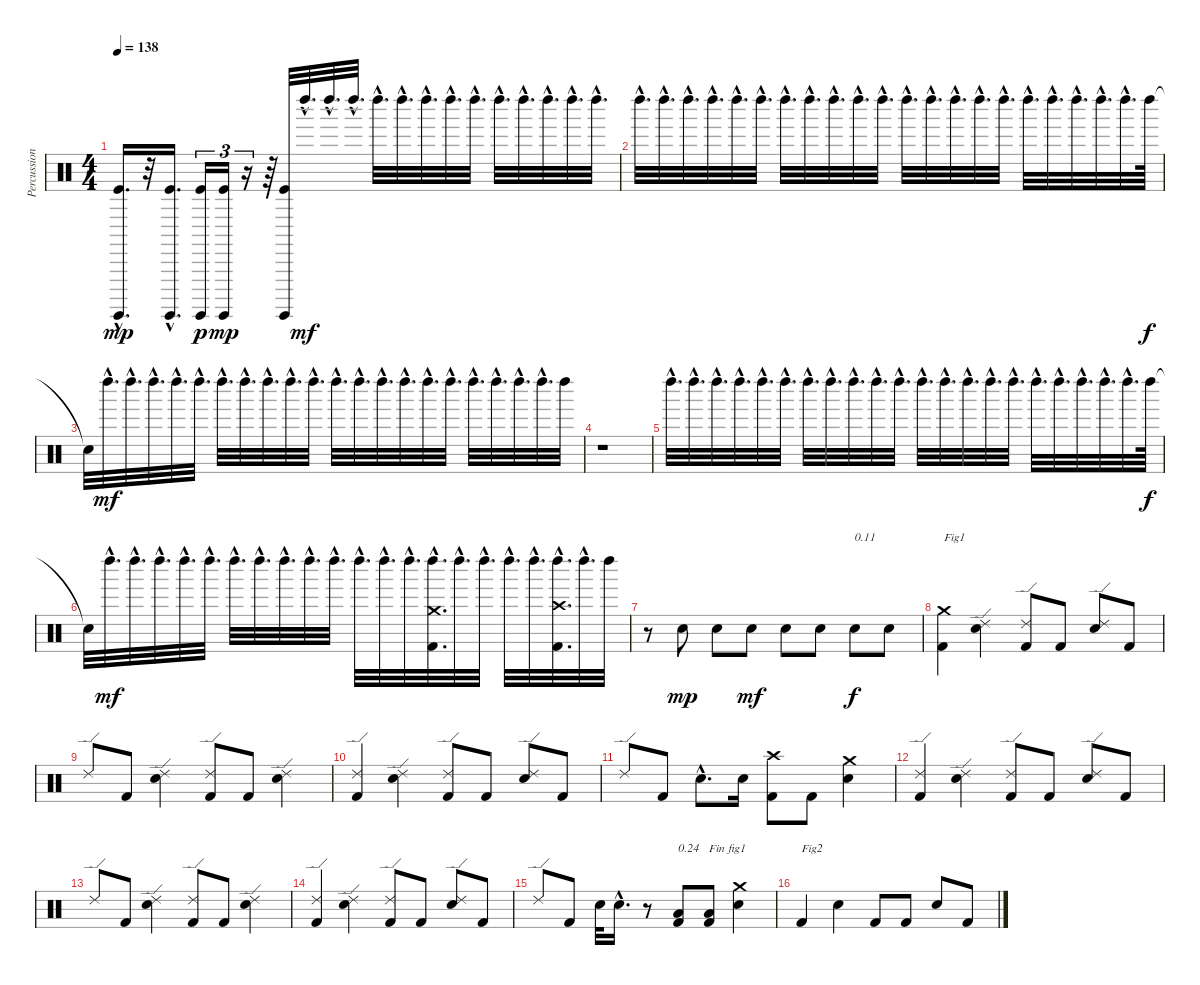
\track ("Percussions" "Percussion") {instrument percussion}
\staff {score}
\articulation defaults
\ts (4 4)
\tempo 138
\clef neutral
\ks c
("Kick (hit)"{hac} "Surdo (hit)"{hac}).16{d dy mp} r.32 ("Kick (hit)"{hac} "Surdo (hit)"{hac}).16{d} ("Kick (hit)" "Surdo (hit)").16{tu (3 2) dy p} ("Kick (hit)" "Surdo (hit)").16{tu (3 2) dy mp} r.16{tu (3 2)} r.64 ("Kick (hit)" "Surdo (hit)").32 "Left Maraca (hit)"{hac}.32{d dy mf} "Left Maraca (hit)"{hac}.32{d} "Left Maraca (hit)"{hac}.32{d} "Left Maraca (hit)"{hac}.32{d} "Left Maraca (hit)"{hac}.32{d} "Left Maraca (hit)"{hac}.32{d} "Left Maraca (hit)"{hac}.32{d} "Left Maraca (hit)"{hac}.32{d} "Left Maraca (hit)"{hac}.32{d} "Left Maraca (hit)"{hac}.32{d} "Left Maraca (hit)"{hac}.32{d} "Left Maraca (hit)"{hac}.32{d} "Left Maraca (hit)"{hac}.32{d} |
"Left Maraca (hit)"{hac}.32{d} "Left Maraca (hit)"{hac}.32{d} "Left Maraca (hit)"{hac}.32{d} "Left Maraca (hit)"{hac}.32{d} "Left Maraca (hit)"{hac}.32{d} "Left Maraca (hit)"{hac}.32{d} "Left Maraca (hit)"{hac}.32{d} "Left Maraca (hit)"{hac}.32{d} "Left Maraca (hit)"{hac}.32{d} "Left Maraca (hit)"{hac}.32{d} "Left Maraca (hit)"{hac}.32{d} "Left Maraca (hit)"{hac}.32{d} "Left Maraca (hit)"{hac}.32{d} "Left Maraca (hit)"{hac}.32{d} "Left Maraca (hit)"{hac}.32{d} "Left Maraca (hit)"{hac}.32{d} "Left Maraca (hit)"{hac}.32{d} "Left Maraca (hit)"{hac}.32{d} "Left Maraca (hit)"{hac}.32{d} "Left Maraca (hit)"{hac}.32{d} "Left Maraca (hit)"{hac}.32{d} "Left Maraca (hit)".64{dy f} |
"Snare (hit)"{t}.32 "Left Maraca (hit)"{hac}.32{d dy mf} "Left Maraca (hit)"{hac}.32{d} "Left Maraca (hit)"{hac}.32{d} "Left Maraca (hit)"{hac}.32{d} "Left Maraca (hit)"{hac}.32{d} "Left Maraca (hit)"{hac}.32{d} "Left Maraca (hit)"{hac}.32{d} "Left Maraca (hit)"{hac}.32{d} "Left Maraca (hit)"{hac}.32{d} "Left Maraca (hit)"{hac}.32{d} "Left Maraca (hit)"{hac}.32{d} "Left Maraca (hit)"{hac}.32{d} "Left Maraca (hit)"{hac}.32{d} "Left Maraca (hit)"{hac}.32{d} "Left Maraca (hit)"{hac}.32{d} "Left Maraca (hit)"{hac}.32{d} "Left Maraca (hit)"{hac}.32{d} "Left Maraca (hit)"{hac}.32{d} "Left Maraca (hit)"{hac}.32{d} "Left Maraca (hit)"{hac}.32{d} "Left Maraca (hit)".32 |
r.1 |
"Left Maraca (hit)"{hac}.32{d} "Left Maraca (hit)"{hac}.32{d} "Left Maraca (hit)"{hac}.32{d} "Left Maraca (hit)"{hac}.32{d} "Left Maraca (hit)"{hac}.32{d} "Left Maraca (hit)"{hac}.32{d} "Left Maraca (hit)"{hac}.32{d} "Left Maraca (hit)"{hac}.32{d} "Left Maraca (hit)"{hac}.32{d} "Left Maraca (hit)"{hac}.32{d} "Left Maraca (hit)"{hac}.32{d} "Left Maraca (hit)"{hac}.32{d} "Left Maraca (hit)"{hac}.32{d} "Left Maraca (hit)"{hac}.32{d} "Left Maraca (hit)"{hac}.32{d} "Left Maraca (hit)"{hac}.32{d} "Left Maraca (hit)"{hac}.32{d} "Left Maraca (hit)"{hac}.32{d} "Left Maraca (hit)"{hac}.32{d} "Left Maraca (hit)"{hac}.32{d} "Left Maraca (hit)"{hac}.32{d} "Left Maraca (hit)".64{dy f} |
"Snare (hit)"{t}.32 "Left Maraca (hit)"{hac}.32{d dy mf} "Left Maraca (hit)"{hac}.32{d} "Left Maraca (hit)"{hac}.32{d} "Left Maraca (hit)"{hac}.32{d} "Left Maraca (hit)"{hac}.32{d} "Left Maraca (hit)"{hac}.32{d} "Left Maraca (hit)"{hac}.32{d} "Left Maraca (hit)"{hac}.32{d} "Left Maraca (hit)"{hac}.32{d} "Left Maraca (hit)"{hac}.32{d} "Left Maraca (hit)"{hac}.32{d} "Left Maraca (hit)"{hac}.32{d} "Left Maraca (hit)"{hac}.32{d} ("Left Maraca (hit)"{hac} "Kick (hit) 2"{hac} "Crash medium (hit)"{hac}).32{d} "Left Maraca (hit)"{hac}.32{d} "Left Maraca (hit)"{hac}.32{d} "Left Maraca (hit)"{hac}.32{d} "Left Maraca (hit)"{hac}.32{d} ("Left Maraca (hit)"{hac} "Kick (hit) 2"{hac} "Crash high (hit)"{hac}).32{d} "Left Maraca (hit)"{hac}.32{d} "Left Maraca (hit)".32 |
r.8 "Electric Snare (hit)".8{dy mp} "Electric Snare (hit)".8 "Electric Snare (hit)".8{dy mf} "Electric Snare (hit)".8 "Electric Snare (hit)".8 "Electric Snare (hit)".8{txt "0.11" dy f} "Electric Snare (hit)".8 |
("Kick (hit) 2" "Crash medium (hit)").4{txt "Fig1"} ("Electric Snare (hit)" "Ride (edge) 2").4 ("Kick (hit) 2" "Ride (edge) 2").8 "Kick (hit) 2".8 ("Electric Snare (hit)" "Ride (edge) 2").8 "Kick (hit) 2".8 |
"Ride (edge) 2".8 "Kick (hit) 2".8 ("Electric Snare (hit)" "Ride (edge) 2").4 ("Kick (hit) 2" "Ride (edge) 2").8 "Kick (hit) 2".8 ("Electric Snare (hit)" "Ride (edge) 2").4 |
("Kick (hit) 2" "Ride (edge) 2").4 ("Electric Snare (hit)" "Ride (edge) 2").4 ("Kick (hit) 2" "Ride (edge) 2").8 "Kick (hit) 2".8 ("Electric Snare (hit)" "Ride (edge) 2").8 "Kick (hit) 2".8 |
"Ride (edge) 2".8 "Kick (hit) 2".8 "Electric Snare (hit)"{hac}.8{d} "Electric Snare (hit)".16 ("Kick (hit) 2" "Crash high (hit)").8 "Kick (hit) 2".8 ("Electric Snare (hit)" "Crash medium (hit)").4 |
("Kick (hit) 2" "Ride (edge) 2").4 ("Electric Snare (hit)" "Ride (edge) 2").4 ("Kick (hit) 2" "Ride (edge) 2").8 "Kick (hit) 2".8 ("Electric Snare (hit)" "Ride (edge) 2").8 "Kick (hit) 2".8 |
"Ride (edge) 2".8 "Kick (hit) 2".8 ("Electric Snare (hit)" "Ride (edge) 2").4 ("Kick (hit) 2" "Ride (edge) 2").8 "Kick (hit) 2".8 ("Electric Snare (hit)" "Ride (edge) 2").4 |
("Kick (hit) 2" "Ride (edge) 2").4 ("Electric Snare (hit)" "Ride (edge) 2").4 ("Kick (hit) 2" "Ride (edge) 2").8 "Kick (hit) 2".8 ("Electric Snare (hit)" "Ride (edge) 2").8 "Kick (hit) 2".8 |
"Ride (edge) 2".8 "Kick (hit) 2".8 "Electric Snare (hit)".32 "Electric Snare (hit)"{hac}.16{d} r.8 ("Kick (hit) 2" "Low Floor Tom (hit)").8{txt "0.24"} ("Kick (hit) 2" "Low Floor Tom (hit)").8{txt "Fin fig1"} ("Electric Snare (hit)" "Crash medium (hit)").4 |
"Kick (hit) 2".4{txt "Fig2"} "Electric Snare (hit)".4 "Kick (hit) 2".8 "Kick (hit) 2".8 "Electric Snare (hit)".8 "Kick (hit) 2".8
